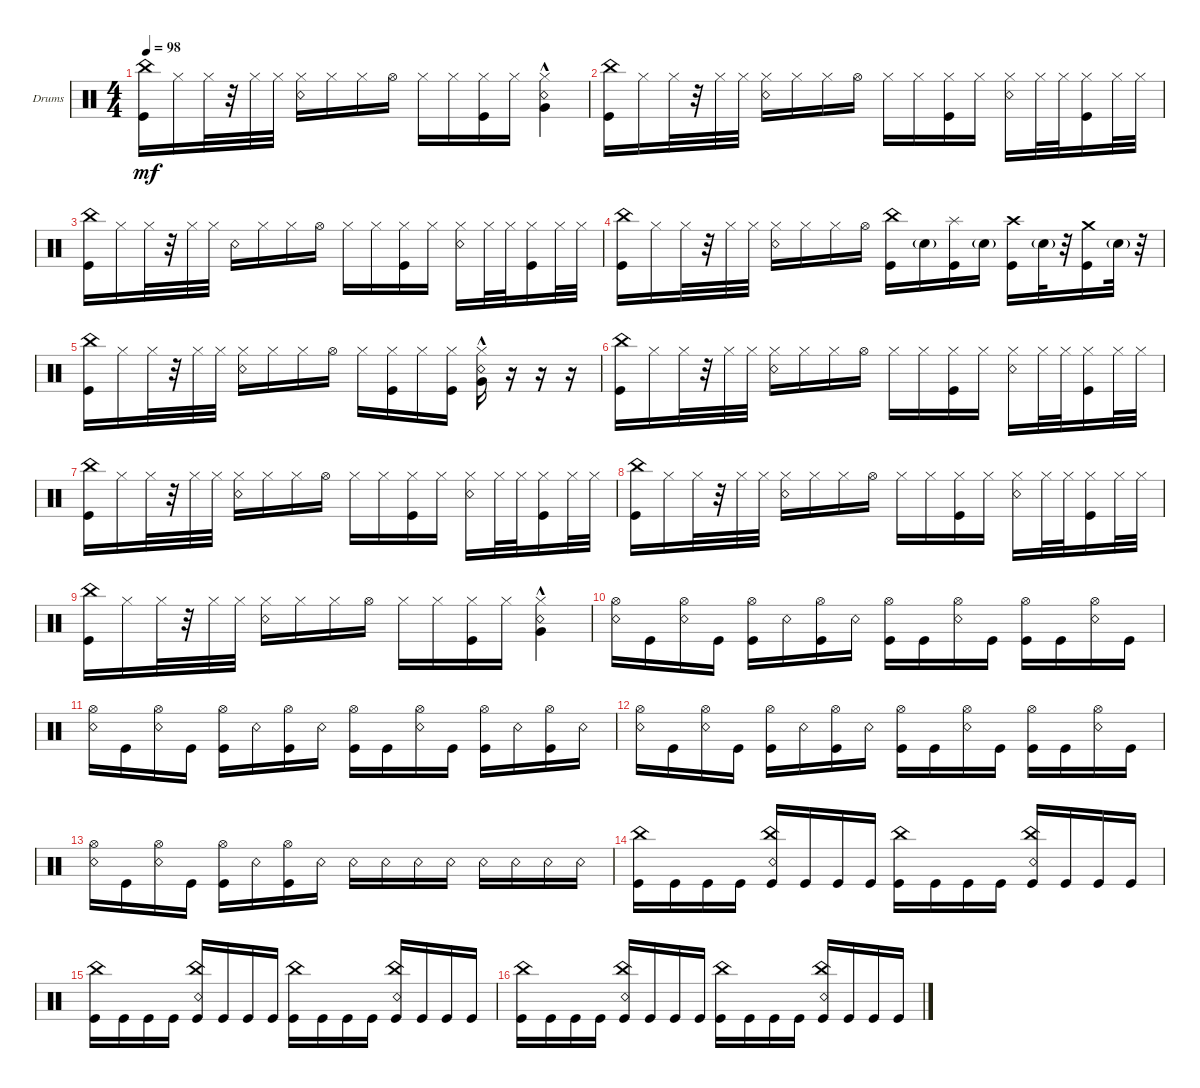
\defaultSystemsLayout 4
\bracketExtendMode groupsimilarinstruments
\multiBarRest
\firstSystemTrackNameOrientation horizontal
\otherSystemsTrackNameOrientation horizontal
\track ("Drumkit" "Drums") {instrument percussion}
\staff {score}
\articulation defaults
\ts (4 4)
\tempo 98
\clef neutral
\ks c
("Kick (hit)" "China (hit)").16{dy mf} "Hi-Hat (closed)".16 "Hi-Hat (closed)".32 r.32 "Hi-Hat (closed)".32 "Hi-Hat (closed)".32 ("Hi-Hat (closed)" "Snare (rim shot)").16 "Hi-Hat (closed)".16 "Hi-Hat (closed)".16 "Hi-Hat (open)".16 "Hi-Hat (closed)".16 "Hi-Hat (closed)".16 ("Hi-Hat (closed)" "Kick (hit)").16 "Hi-Hat (closed)".16 ("Hi-Hat (closed)" "Snare (rim shot)" "Very Low Tom (hit)"{hac}).4 |
("Kick (hit)" "China (hit)").16 "Hi-Hat (closed)".16 "Hi-Hat (closed)".32 r.32 "Hi-Hat (closed)".32 "Hi-Hat (closed)".32 ("Hi-Hat (closed)" "Snare (rim shot)").16 "Hi-Hat (closed)".16 "Hi-Hat (closed)".16 "Hi-Hat (open)".16 "Hi-Hat (closed)".16 "Hi-Hat (closed)".16 ("Hi-Hat (closed)" "Kick (hit)").16 "Hi-Hat (closed)".16 ("Hi-Hat (closed)" "Snare (rim shot)").16 "Hi-Hat (closed)".32 "Hi-Hat (closed)".32 ("Hi-Hat (closed)" "Kick (hit)").16 "Hi-Hat (closed)".32 "Hi-Hat (closed)".32 |
("Kick (hit)" "China (hit)").16 "Hi-Hat (closed)".16 "Hi-Hat (closed)".32 r.32 "Hi-Hat (closed)".32 "Hi-Hat (closed)".32 "Snare (rim shot)".16 "Hi-Hat (closed)".16 "Hi-Hat (closed)".16 "Hi-Hat (open)".16 "Hi-Hat (closed)".16 "Hi-Hat (closed)".16 ("Hi-Hat (closed)" "Kick (hit)").16 "Hi-Hat (closed)".16 ("Hi-Hat (closed)" "Snare (rim shot)").16 "Hi-Hat (closed)".32 "Hi-Hat (closed)".32 ("Hi-Hat (closed)" "Kick (hit)").16 "Hi-Hat (closed)".32 "Hi-Hat (closed)".32 |
("Kick (hit)" "China (hit)").16 "Hi-Hat (closed)".16 "Hi-Hat (closed)".32 r.32 "Hi-Hat (closed)".32 "Hi-Hat (closed)".32 ("Hi-Hat (closed)" "Snare (rim shot)").16 "Hi-Hat (closed)".16 "Hi-Hat (closed)".16 "Hi-Hat (open)".16 ("China (hit)" "Kick (hit)").16 "Snare (hit) 2"{g}.16 ("Kick (hit)" "Splash (hit)").16 "Snare (hit) 2"{g}.16 ("Kick (hit)" "Crash high (hit)").16 "Snare (hit) 2"{g}.32 r.32 ("Kick (hit)" "Crash medium (hit)").16 "Snare (hit) 2"{g}.32 r.32 |
("Kick (hit)" "China (hit)").16 "Hi-Hat (closed)".16 "Hi-Hat (closed)".32 r.32 "Hi-Hat (closed)".32 "Hi-Hat (closed)".32 ("Hi-Hat (closed)" "Snare (rim shot)").16 "Hi-Hat (closed)".16 "Hi-Hat (closed)".16 "Hi-Hat (open)".16 "Hi-Hat (closed)".16 ("Hi-Hat (closed)" "Kick (hit)").16 "Hi-Hat (closed)".16 ("Hi-Hat (closed)" "Kick (hit)").16 ("Hi-Hat (closed)" "Snare (rim shot)" "Very Low Tom (hit)"{hac}).16 r.16 r.16 r.16 |
("Kick (hit)" "China (hit)").16 "Hi-Hat (closed)".16 "Hi-Hat (closed)".32 r.32 "Hi-Hat (closed)".32 "Hi-Hat (closed)".32 ("Hi-Hat (closed)" "Snare (rim shot)").16 "Hi-Hat (closed)".16 "Hi-Hat (closed)".16 "Hi-Hat (open)".16 "Hi-Hat (closed)".16 "Hi-Hat (closed)".16 ("Hi-Hat (closed)" "Kick (hit)").16 "Hi-Hat (closed)".16 ("Hi-Hat (closed)" "Snare (rim shot)").16 "Hi-Hat (closed)".32 "Hi-Hat (closed)".32 ("Hi-Hat (closed)" "Kick (hit)").16 "Hi-Hat (closed)".32 "Hi-Hat (closed)".32 |
("Kick (hit)" "China (hit)").16 "Hi-Hat (closed)".16 "Hi-Hat (closed)".32 r.32 "Hi-Hat (closed)".32 "Hi-Hat (closed)".32 ("Hi-Hat (closed)" "Snare (rim shot)").16 "Hi-Hat (closed)".16 "Hi-Hat (closed)".16 "Hi-Hat (open)".16 "Hi-Hat (closed)".16 "Hi-Hat (closed)".16 ("Hi-Hat (closed)" "Kick (hit)").16 "Hi-Hat (closed)".16 ("Hi-Hat (closed)" "Snare (rim shot)").16 "Hi-Hat (closed)".32 "Hi-Hat (closed)".32 ("Hi-Hat (closed)" "Kick (hit)").16 "Hi-Hat (closed)".32 "Hi-Hat (closed)".32 |
("Kick (hit)" "China (hit)").16 "Hi-Hat (closed)".16 "Hi-Hat (closed)".32 r.32 "Hi-Hat (closed)".32 "Hi-Hat (closed)".32 ("Hi-Hat (closed)" "Snare (rim shot)").16 "Hi-Hat (closed)".16 "Hi-Hat (closed)".16 "Hi-Hat (open)".16 "Hi-Hat (closed)".16 "Hi-Hat (closed)".16 ("Hi-Hat (closed)" "Kick (hit)").16 "Hi-Hat (closed)".16 ("Hi-Hat (closed)" "Snare (rim shot)").16 "Hi-Hat (closed)".32 "Hi-Hat (closed)".32 ("Hi-Hat (closed)" "Kick (hit)").16 "Hi-Hat (closed)".32 "Hi-Hat (closed)".32 |
("Kick (hit)" "China (hit)").16 "Hi-Hat (closed)".16 "Hi-Hat (closed)".32 r.32 "Hi-Hat (closed)".32 "Hi-Hat (closed)".32 ("Hi-Hat (closed)" "Snare (rim shot)").16 "Hi-Hat (closed)".16 "Hi-Hat (closed)".16 "Hi-Hat (open)".16 "Hi-Hat (closed)".16 "Hi-Hat (closed)".16 ("Hi-Hat (closed)" "Kick (hit)").16 "Hi-Hat (closed)".16 ("Hi-Hat (closed)" "Snare (rim shot)" "Very Low Tom (hit)"{hac}).4 |
("Snare (rim shot)" "Hi-Hat (open)").16 "Kick (hit)".16 ("Snare (rim shot)" "Hi-Hat (open)").16 "Kick (hit)".16 ("Kick (hit)" "Hi-Hat (open)").16 "Snare (rim shot)".16 ("Kick (hit)" "Hi-Hat (open)").16 "Snare (rim shot)".16 ("Kick (hit)" "Hi-Hat (open)").16 "Kick (hit)".16 ("Snare (rim shot)" "Hi-Hat (open)").16 "Kick (hit)".16 ("Kick (hit)" "Hi-Hat (open)").16 "Kick (hit)".16 ("Snare (rim shot)" "Hi-Hat (open)").16 "Kick (hit)".16 |
("Snare (rim shot)" "Hi-Hat (open)").16 "Kick (hit)".16 ("Snare (rim shot)" "Hi-Hat (open)").16 "Kick (hit)".16 ("Kick (hit)" "Hi-Hat (open)").16 "Snare (rim shot)".16 ("Kick (hit)" "Hi-Hat (open)").16 "Snare (rim shot)".16 ("Kick (hit)" "Hi-Hat (open)").16 "Kick (hit)".16 ("Snare (rim shot)" "Hi-Hat (open)").16 "Kick (hit)".16 ("Kick (hit)" "Hi-Hat (open)").16 "Snare (rim shot)".16 ("Kick (hit)" "Hi-Hat (open)").16 "Snare (rim shot)".16 |
("Snare (rim shot)" "Hi-Hat (open)").16 "Kick (hit)".16 ("Snare (rim shot)" "Hi-Hat (open)").16 "Kick (hit)".16 ("Kick (hit)" "Hi-Hat (open)").16 "Snare (rim shot)".16 ("Kick (hit)" "Hi-Hat (open)").16 "Snare (rim shot)".16 ("Kick (hit)" "Hi-Hat (open)").16 "Kick (hit)".16 ("Snare (rim shot)" "Hi-Hat (open)").16 "Kick (hit)".16 ("Kick (hit)" "Hi-Hat (open)").16 "Kick (hit)".16 ("Snare (rim shot)" "Hi-Hat (open)").16 "Kick (hit)".16 |
("Snare (rim shot)" "Hi-Hat (open)").16 "Kick (hit)".16 ("Snare (rim shot)" "Hi-Hat (open)").16 "Kick (hit)".16 ("Kick (hit)" "Hi-Hat (open)").16 "Snare (rim shot)".16 ("Kick (hit)" "Hi-Hat (open)").16 "Snare (rim shot)".16 "Snare (rim shot)".16 "Snare (rim shot)".16 "Snare (rim shot)".16 "Snare (rim shot)".16 "Snare (rim shot)".16 "Snare (rim shot)".16 "Snare (rim shot)".16 "Snare (rim shot)".16 |
("Kick (hit)" "China (hit)").16 "Kick (hit)".16 "Kick (hit)".16 "Kick (hit)".16 ("Kick (hit)" "China (hit)" "Snare (rim shot)").16 "Kick (hit)".16 "Kick (hit)".16 "Kick (hit)".16 ("Kick (hit)" "China (hit)").16 "Kick (hit)".16 "Kick (hit)".16 "Kick (hit)".16 ("Kick (hit)" "Snare (rim shot)" "China (hit)").16 "Kick (hit)".16 "Kick (hit)".16 "Kick (hit)".16 |
("Kick (hit)" "China (hit)").16 "Kick (hit)".16 "Kick (hit)".16 "Kick (hit)".16 ("Kick (hit)" "China (hit)" "Snare (rim shot)").16 "Kick (hit)".16 "Kick (hit)".16 "Kick (hit)".16 ("Kick (hit)" "China (hit)").16 "Kick (hit)".16 "Kick (hit)".16 "Kick (hit)".16 ("Kick (hit)" "Snare (rim shot)" "China (hit)").16 "Kick (hit)".16 "Kick (hit)".16 "Kick (hit)".16 |
("Kick (hit)" "China (hit)").16 "Kick (hit)".16 "Kick (hit)".16 "Kick (hit)".16 ("Kick (hit)" "China (hit)" "Snare (rim shot)").16 "Kick (hit)".16 "Kick (hit)".16 "Kick (hit)".16 ("Kick (hit)" "China (hit)").16 "Kick (hit)".16 "Kick (hit)".16 "Kick (hit)".16 ("Kick (hit)" "Snare (rim shot)" "China (hit)").16 "Kick (hit)".16 "Kick (hit)".16 "Kick (hit)".16
